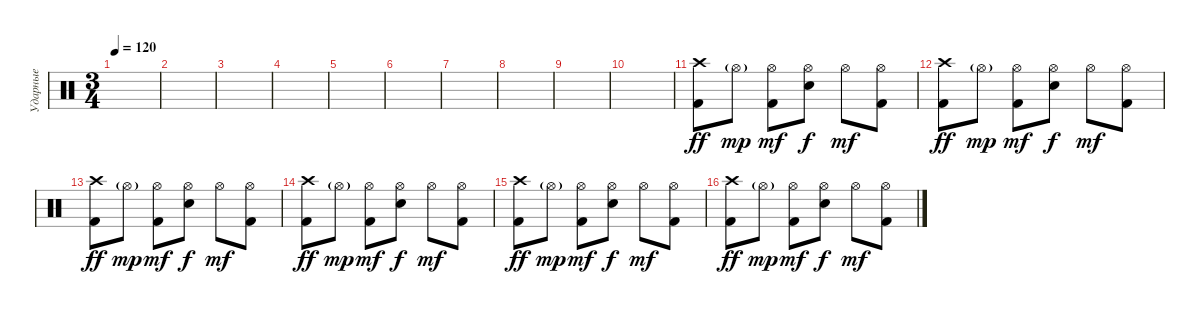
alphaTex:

\track ("Ударные" "Ударные") {instrument percussion}
\staff {score}
\articulation defaults
\ts (3 4)
\tempo 120
\clef neutral
\ks c
|
|
|
|
|
|
|
|
|
|
("Crash high (hit)" "Kick (hit) 2").8{dy ff} "Hi-Hat (open)"{g}.8{dy mp} ("Hi-Hat (open)" "Kick (hit) 2").8{dy mf} ("Hi-Hat (open)" "Electric Snare (hit)").8{dy f} "Hi-Hat (open)".8{dy mf} ("Hi-Hat (open)" "Kick (hit) 2").8 |
("Crash high (hit)" "Kick (hit) 2").8{dy ff} "Hi-Hat (open)"{g}.8{dy mp} ("Hi-Hat (open)" "Kick (hit) 2").8{dy mf} ("Hi-Hat (open)" "Electric Snare (hit)").8{dy f} "Hi-Hat (open)".8{dy mf} ("Hi-Hat (open)" "Kick (hit) 2").8 |
("Crash high (hit)" "Kick (hit) 2").8{dy ff} "Hi-Hat (open)"{g}.8{dy mp} ("Hi-Hat (open)" "Kick (hit) 2").8{dy mf} ("Hi-Hat (open)" "Electric Snare (hit)").8{dy f} "Hi-Hat (open)".8{dy mf} ("Hi-Hat (open)" "Kick (hit) 2").8 |
("Crash high (hit)" "Kick (hit) 2").8{dy ff} "Hi-Hat (open)"{g}.8{dy mp} ("Hi-Hat (open)" "Kick (hit) 2").8{dy mf} ("Hi-Hat (open)" "Electric Snare (hit)").8{dy f} "Hi-Hat (open)".8{dy mf} ("Hi-Hat (open)" "Kick (hit) 2").8 |
("Crash high (hit)" "Kick (hit) 2").8{dy ff} "Hi-Hat (open)"{g}.8{dy mp} ("Hi-Hat (open)" "Kick (hit) 2").8{dy mf} ("Hi-Hat (open)" "Electric Snare (hit)").8{dy f} "Hi-Hat (open)".8{dy mf} ("Hi-Hat (open)" "Kick (hit) 2").8 |
("Crash high (hit)" "Kick (hit) 2").8{dy ff} "Hi-Hat (open)"{g}.8{dy mp} ("Hi-Hat (open)" "Kick (hit) 2").8{dy mf} ("Hi-Hat (open)" "Electric Snare (hit)").8{dy f} "Hi-Hat (open)".8{dy mf} ("Hi-Hat (open)" "Kick (hit) 2").8
